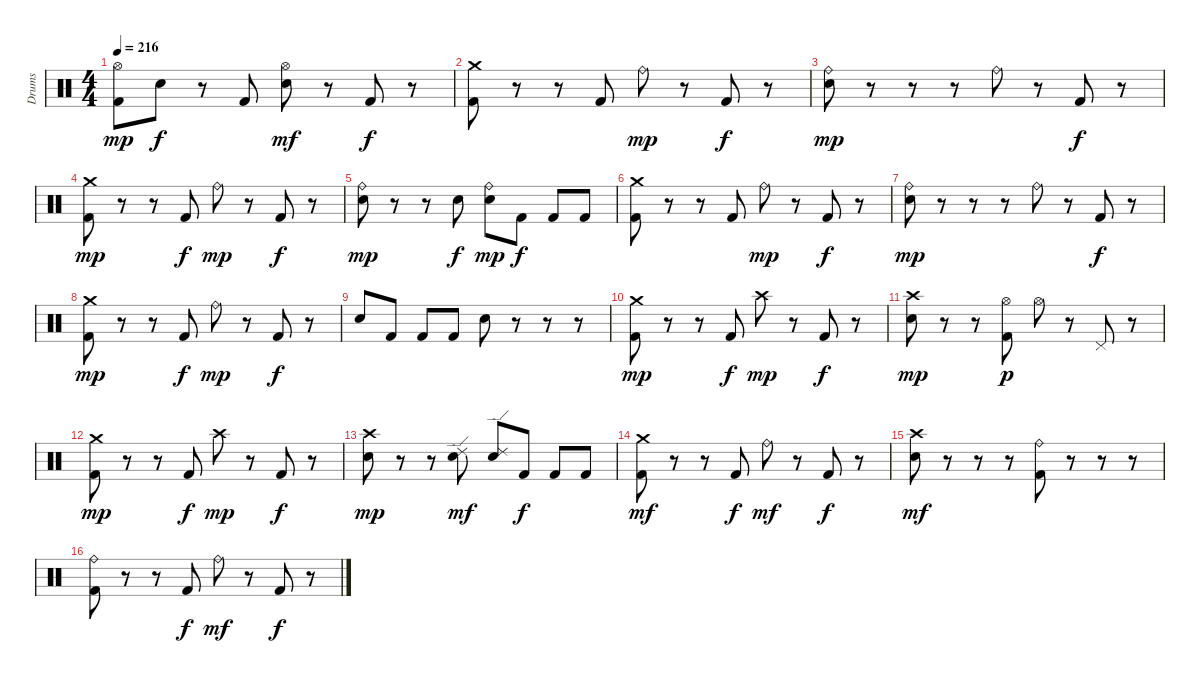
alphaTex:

\track ("Drums" "Drums") {instrument percussion}
\staff {score}
\articulation defaults
\ts (4 4)
\tempo 216
\clef neutral
\ks c
("Kick (hit) 2" "Hi-Hat (open)").8{dy mp} "Snare (hit) 2".8{dy f} r.8 "Kick (hit) 2".8 ("Snare (hit) 2" "Hi-Hat (open)").8{dy mf} r.8 "Kick (hit) 2".8{dy f} r.8 |
("Kick (hit) 2" "Crash medium (hit)").8 r.8 r.8 "Kick (hit) 2".8 "Ride (bell)".8{dy mp} r.8 "Kick (hit) 2".8{dy f} r.8 |
("Snare (hit) 2" "Ride (bell)").8{dy mp} r.8 r.8 r.8 "Ride (bell)".8 r.8 "Kick (hit) 2".8{dy f} r.8 |
("Kick (hit) 2" "Crash medium (hit)").8{dy mp} r.8 r.8 "Kick (hit) 2".8{dy f} "Ride (bell)".8{dy mp} r.8 "Kick (hit) 2".8{dy f} r.8 |
("Snare (hit) 2" "Ride (bell)").8{dy mp} r.8 r.8 "Snare (hit) 2".8{dy f} ("Snare (hit) 2" "Ride (bell)").8{dy mp} "Kick (hit) 2".8{dy f} "Kick (hit) 2".8 "Kick (hit) 2".8 |
("Kick (hit) 2" "Crash medium (hit)").8 r.8 r.8 "Kick (hit) 2".8 "Ride (bell)".8{dy mp} r.8 "Kick (hit) 2".8{dy f} r.8 |
("Snare (hit) 2" "Ride (bell)").8{dy mp} r.8 r.8 r.8 "Ride (bell)".8 r.8 "Kick (hit) 2".8{dy f} r.8 |
("Kick (hit) 2" "Crash medium (hit)").8{dy mp} r.8 r.8 "Kick (hit) 2".8{dy f} "Ride (bell)".8{dy mp} r.8 "Kick (hit) 2".8{dy f} r.8 |
"Snare (hit) 2".8 "Kick (hit) 2".8 "Kick (hit) 2".8 "Kick (hit) 2".8 "Snare (hit) 2".8 r.8 r.8 r.8 |
("Kick (hit) 2" "Crash medium (hit)").8{dy mp} r.8 r.8 "Kick (hit) 2".8{dy f} "Crash high (hit)".8{dy mp} r.8 "Kick (hit) 2".8{dy f} r.8 |
("Snare (hit) 2" "Crash high (hit)").8{dy mp} r.8 r.8 ("Kick (hit) 2" "Hi-Hat (open)").8{dy p} "Hi-Hat (open)".8 r.8 "Pedal Hi-Hat (hit)".8 r.8 |
("Kick (hit) 2" "Crash medium (hit)").8{dy mp} r.8 r.8 "Kick (hit) 2".8{dy f} "Crash high (hit)".8{dy mp} r.8 "Kick (hit) 2".8{dy f} r.8 |
("Snare (hit) 2" "Crash high (hit)").8{dy mp} r.8 r.8 ("Snare (hit) 2" "Ride (edge) 2").8{dy mf} ("Snare (hit) 2" "Ride (edge) 2").8 "Kick (hit) 2".8{dy f} "Kick (hit) 2".8 "Kick (hit) 2".8 |
("Kick (hit) 2" "Crash medium (hit)").8{dy mf} r.8 r.8 "Kick (hit) 2".8{dy f} "Ride (bell)".8{dy mf} r.8 "Kick (hit) 2".8{dy f} r.8 |
("Snare (hit) 2" "Crash high (hit)").8{dy mf} r.8 r.8 r.8 ("Kick (hit) 2" "Ride (bell)").8 r.8 r.8 r.8 |
("Kick (hit) 2" "Ride (bell)").8 r.8 r.8 "Kick (hit) 2".8{dy f} "Ride (bell)".8{dy mf} r.8 "Kick (hit) 2".8{dy f} r.8
